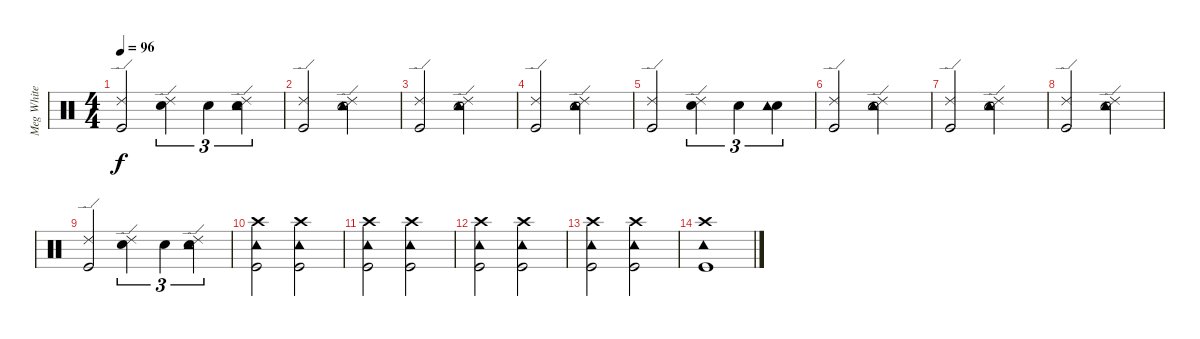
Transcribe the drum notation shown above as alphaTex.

\track ("Meg White" "Meg White") {instrument percussion}
\staff {score}
\articulation defaults
\ts (4 4)
\tempo 96
\clef neutral
\ks c
("Kick (hit)" "Ride (edge) 2").2{dy f} ("Electric Snare (hit)" "Ride (edge) 2").4{tu (3 2)} "Electric Snare (hit)".4{tu (3 2)} ("Electric Snare (hit)" "Tambourine (hit)" "Ride (edge) 2").4{tu (3 2)} |
("Kick (hit)" "Ride (edge) 2").2 ("Electric Snare (hit)" "Tambourine (hit)" "Ride (edge) 2").2 |
("Kick (hit)" "Ride (edge) 2").2 ("Electric Snare (hit)" "Tambourine (hit)" "Ride (edge) 2").2 |
("Kick (hit)" "Ride (edge) 2").2 ("Electric Snare (hit)" "Tambourine (hit)" "Ride (edge) 2").2 |
("Kick (hit)" "Ride (edge) 2").2 ("Electric Snare (hit)" "Ride (edge) 2").4{tu (3 2)} "Electric Snare (hit)".4{tu (3 2)} ("Electric Snare (hit)" "Tambourine (hit)").4{tu (3 2)} |
("Kick (hit)" "Ride (edge) 2").2 ("Electric Snare (hit)" "Tambourine (hit)" "Ride (edge) 2").2 |
("Kick (hit)" "Ride (edge) 2").2 ("Electric Snare (hit)" "Tambourine (hit)" "Ride (edge) 2").2 |
("Kick (hit)" "Ride (edge) 2").2 ("Electric Snare (hit)" "Tambourine (hit)" "Ride (edge) 2").2 |
("Kick (hit)" "Ride (edge) 2").2 ("Electric Snare (hit)" "Ride (edge) 2").4{tu (3 2)} "Electric Snare (hit)".4{tu (3 2)} ("Electric Snare (hit)" "Tambourine (hit)" "Ride (edge) 2").4{tu (3 2)} |
("Kick (hit)" "Tambourine (hit)" "Crash high (hit)").2 ("Kick (hit)" "Tambourine (hit)" "Crash high (hit)").2 |
("Kick (hit)" "Tambourine (hit)" "Crash high (hit)").2 ("Kick (hit)" "Tambourine (hit)" "Crash high (hit)").2 |
("Kick (hit)" "Tambourine (hit)" "Crash high (hit)").2 ("Kick (hit)" "Tambourine (hit)" "Crash high (hit)").2 |
("Kick (hit)" "Tambourine (hit)" "Crash high (hit)").2 ("Kick (hit)" "Tambourine (hit)" "Crash high (hit)").2 |
("Kick (hit)" "Tambourine (hit)" "Crash high (hit)").1
